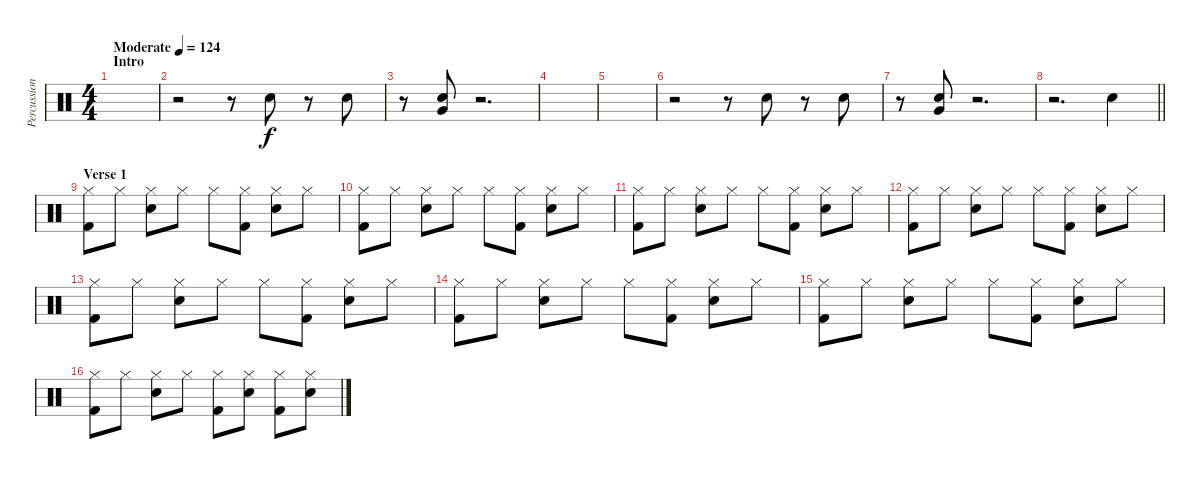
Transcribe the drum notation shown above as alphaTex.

\track ("Percussion" "Percussion") {instrument percussion}
\staff {score}
\articulation defaults
\ts (4 4)
\section ("" "Intro")
\tempo (124 "Moderate")
\clef neutral
\ks c
|
r.2 r.8 "Snare (hit) 2".8 r.8 "Snare (hit) 2".8 |
r.8 ("Very Low Tom (hit)" "Snare (hit) 2").8 r.2{d} |
|
|
r.2 r.8 "Snare (hit) 2".8 r.8 "Snare (hit) 2".8 |
r.8 ("Very Low Tom (hit)" "Snare (hit) 2").8 r.2{d} |
\barLineRight lightlight
r.2{d} "Snare (hit) 2".4 |
\section ("" "Verse 1")
("Hi-Hat (closed)" "Kick (hit) 2").8 "Hi-Hat (closed)".8 ("Hi-Hat (closed)" "Snare (hit) 2").8 "Hi-Hat (closed)".8 "Hi-Hat (closed)".8 ("Hi-Hat (closed)" "Kick (hit) 2").8 ("Hi-Hat (closed)" "Snare (hit) 2").8 "Hi-Hat (closed)".8 |
("Hi-Hat (closed)" "Kick (hit) 2").8 "Hi-Hat (closed)".8 ("Hi-Hat (closed)" "Snare (hit) 2").8 "Hi-Hat (closed)".8 "Hi-Hat (closed)".8 ("Hi-Hat (closed)" "Kick (hit) 2").8 ("Hi-Hat (closed)" "Snare (hit) 2").8 "Hi-Hat (closed)".8 |
("Hi-Hat (closed)" "Kick (hit) 2").8 "Hi-Hat (closed)".8 ("Hi-Hat (closed)" "Snare (hit) 2").8 "Hi-Hat (closed)".8 "Hi-Hat (closed)".8 ("Hi-Hat (closed)" "Kick (hit) 2").8 ("Hi-Hat (closed)" "Snare (hit) 2").8 "Hi-Hat (closed)".8 |
("Hi-Hat (closed)" "Kick (hit) 2").8 "Hi-Hat (closed)".8 ("Hi-Hat (closed)" "Snare (hit) 2").8 "Hi-Hat (closed)".8 "Hi-Hat (closed)".8 ("Hi-Hat (closed)" "Kick (hit) 2").8 ("Hi-Hat (closed)" "Snare (hit) 2").8 "Hi-Hat (closed)".8 |
("Hi-Hat (closed)" "Kick (hit) 2").8 "Hi-Hat (closed)".8 ("Hi-Hat (closed)" "Snare (hit) 2").8 "Hi-Hat (closed)".8 "Hi-Hat (closed)".8 ("Hi-Hat (closed)" "Kick (hit) 2").8 ("Hi-Hat (closed)" "Snare (hit) 2").8 "Hi-Hat (closed)".8 |
("Hi-Hat (closed)" "Kick (hit) 2").8 "Hi-Hat (closed)".8 ("Hi-Hat (closed)" "Snare (hit) 2").8 "Hi-Hat (closed)".8 "Hi-Hat (closed)".8 ("Hi-Hat (closed)" "Kick (hit) 2").8 ("Hi-Hat (closed)" "Snare (hit) 2").8 "Hi-Hat (closed)".8 |
("Hi-Hat (closed)" "Kick (hit) 2").8 "Hi-Hat (closed)".8 ("Hi-Hat (closed)" "Snare (hit) 2").8 "Hi-Hat (closed)".8 "Hi-Hat (closed)".8 ("Hi-Hat (closed)" "Kick (hit) 2").8 ("Hi-Hat (closed)" "Snare (hit) 2").8 "Hi-Hat (closed)".8 |
("Hi-Hat (closed)" "Kick (hit) 2").8 "Hi-Hat (closed)".8 ("Hi-Hat (closed)" "Snare (hit) 2").8 "Hi-Hat (closed)".8 ("Hi-Hat (closed)" "Kick (hit) 2").8 ("Hi-Hat (closed)" "Snare (hit) 2").8 ("Hi-Hat (closed)" "Kick (hit) 2").8 ("Hi-Hat (closed)" "Snare (hit) 2").8
